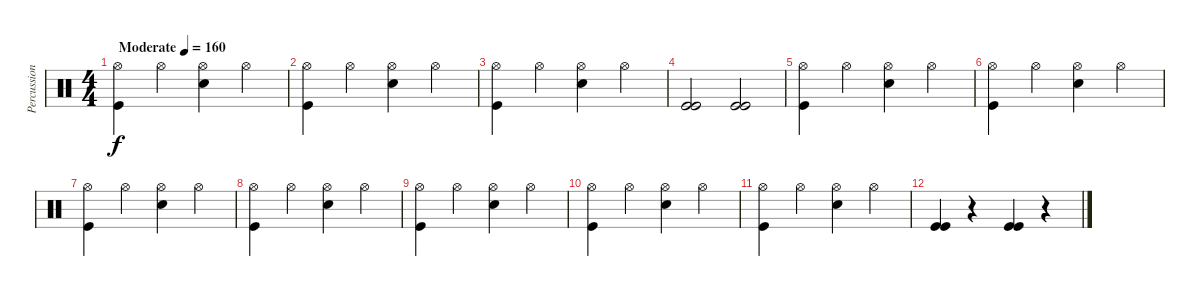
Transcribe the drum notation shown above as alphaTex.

\track ("Percussion" "Percussion") {instrument percussion}
\staff {score}
\articulation defaults
\ts (4 4)
\tempo (160 "Moderate")
\clef neutral
\ks c
("Kick (hit)" "Hi-Hat (open)").4{dy f} "Hi-Hat (open)".4 ("Snare (hit) 2" "Hi-Hat (open)").4 "Hi-Hat (open)".4 |
("Kick (hit)" "Hi-Hat (open)").4 "Hi-Hat (open)".4 ("Snare (hit) 2" "Hi-Hat (open)").4 "Hi-Hat (open)".4 |
("Kick (hit)" "Hi-Hat (open)").4 "Hi-Hat (open)".4 ("Snare (hit) 2" "Hi-Hat (open)").4 "Hi-Hat (open)".4 |
("Kick (hit)" "Kick (hit)").2 ("Kick (hit)" "Kick (hit)").2 |
("Kick (hit)" "Hi-Hat (open)").4 "Hi-Hat (open)".4 ("Snare (hit) 2" "Hi-Hat (open)").4 "Hi-Hat (open)".4 |
("Kick (hit)" "Hi-Hat (open)").4 "Hi-Hat (open)".4 ("Snare (hit) 2" "Hi-Hat (open)").4 "Hi-Hat (open)".4 |
("Kick (hit)" "Hi-Hat (open)").4 "Hi-Hat (open)".4 ("Snare (hit) 2" "Hi-Hat (open)").4 "Hi-Hat (open)".4 |
("Kick (hit)" "Hi-Hat (open)").4 "Hi-Hat (open)".4 ("Snare (hit) 2" "Hi-Hat (open)").4 "Hi-Hat (open)".4 |
("Kick (hit)" "Hi-Hat (open)").4 "Hi-Hat (open)".4 ("Snare (hit) 2" "Hi-Hat (open)").4 "Hi-Hat (open)".4 |
("Kick (hit)" "Hi-Hat (open)").4 "Hi-Hat (open)".4 ("Snare (hit) 2" "Hi-Hat (open)").4 "Hi-Hat (open)".4 |
("Kick (hit)" "Hi-Hat (open)").4 "Hi-Hat (open)".4 ("Snare (hit) 2" "Hi-Hat (open)").4 "Hi-Hat (open)".4 |
("Kick (hit)" "Kick (hit)").4 r.4 ("Kick (hit)" "Kick (hit)").4 r.4
